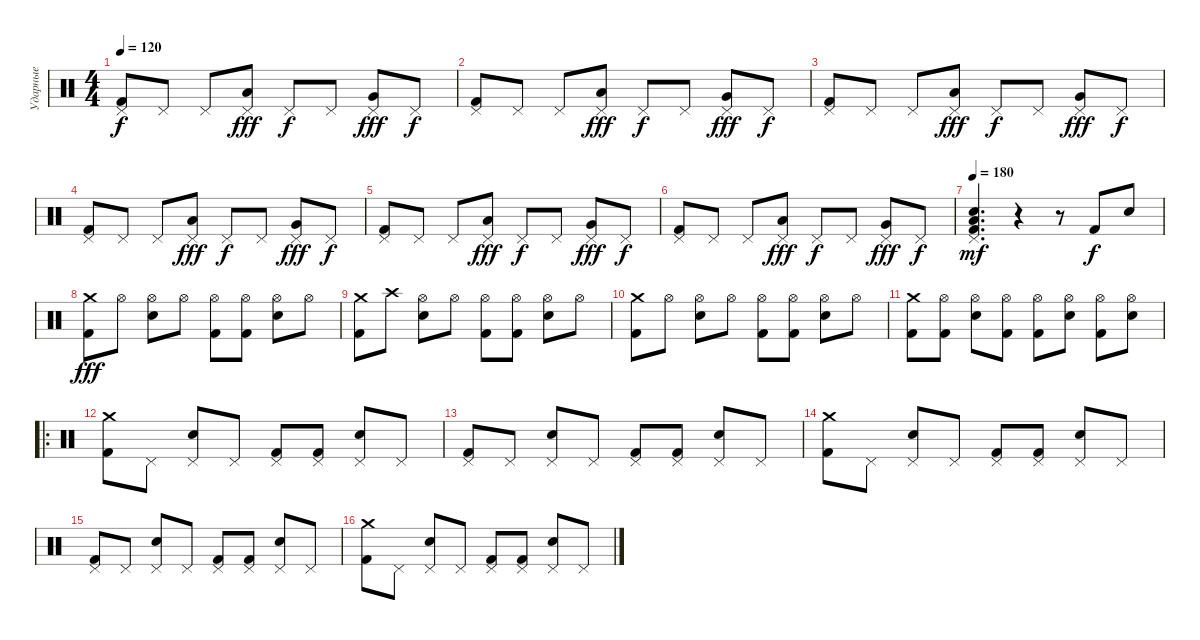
\track ("Ударные" "Ударные") {instrument percussion}
\staff {score}
\articulation defaults
\ts (4 4)
\tempo 120
\clef neutral
\ks c
("Pedal Hi-Hat (hit)" "Kick (hit) 2").8{dy f} "Pedal Hi-Hat (hit)".8 "Pedal Hi-Hat (hit)".8 ("Pedal Hi-Hat (hit)" "Low Floor Tom (hit)").8{dy fff} "Pedal Hi-Hat (hit)".8{dy f} "Pedal Hi-Hat (hit)".8 ("Pedal Hi-Hat (hit)" "Very Low Tom (hit)").8{dy fff} "Pedal Hi-Hat (hit)".8{dy f} |
("Pedal Hi-Hat (hit)" "Kick (hit) 2").8 "Pedal Hi-Hat (hit)".8 "Pedal Hi-Hat (hit)".8 ("Pedal Hi-Hat (hit)" "Low Floor Tom (hit)").8{dy fff} "Pedal Hi-Hat (hit)".8{dy f} "Pedal Hi-Hat (hit)".8 ("Pedal Hi-Hat (hit)" "Very Low Tom (hit)").8{dy fff} "Pedal Hi-Hat (hit)".8{dy f} |
("Pedal Hi-Hat (hit)" "Kick (hit) 2").8 "Pedal Hi-Hat (hit)".8 "Pedal Hi-Hat (hit)".8 ("Pedal Hi-Hat (hit)" "Low Floor Tom (hit)").8{dy fff} "Pedal Hi-Hat (hit)".8{dy f} "Pedal Hi-Hat (hit)".8 ("Pedal Hi-Hat (hit)" "Very Low Tom (hit)").8{dy fff} "Pedal Hi-Hat (hit)".8{dy f} |
("Pedal Hi-Hat (hit)" "Kick (hit) 2").8 "Pedal Hi-Hat (hit)".8 "Pedal Hi-Hat (hit)".8 ("Pedal Hi-Hat (hit)" "Low Floor Tom (hit)").8{dy fff} "Pedal Hi-Hat (hit)".8{dy f} "Pedal Hi-Hat (hit)".8 ("Pedal Hi-Hat (hit)" "Very Low Tom (hit)").8{dy fff} "Pedal Hi-Hat (hit)".8{dy f} |
("Pedal Hi-Hat (hit)" "Kick (hit) 2").8 "Pedal Hi-Hat (hit)".8 "Pedal Hi-Hat (hit)".8 ("Pedal Hi-Hat (hit)" "Low Floor Tom (hit)").8{dy fff} "Pedal Hi-Hat (hit)".8{dy f} "Pedal Hi-Hat (hit)".8 ("Pedal Hi-Hat (hit)" "Very Low Tom (hit)").8{dy fff} "Pedal Hi-Hat (hit)".8{dy f} |
("Pedal Hi-Hat (hit)" "Kick (hit) 2").8 "Pedal Hi-Hat (hit)".8 "Pedal Hi-Hat (hit)".8 ("Pedal Hi-Hat (hit)" "Low Floor Tom (hit)").8{dy fff} "Pedal Hi-Hat (hit)".8{dy f} "Pedal Hi-Hat (hit)".8 ("Pedal Hi-Hat (hit)" "Very Low Tom (hit)").8{dy fff} "Pedal Hi-Hat (hit)".8{dy f} |
\tempo 180
("Metronome (bell)" "Pedal Hi-Hat (hit)" "Low Floor Tom (hit)" "Kick (hit) 2").4{d dy mf} r.4 r.8 "Kick (hit) 2".8{dy f} "Electric Snare (hit)".8 |
("Crash medium (hit)" "Kick (hit) 2").8{dy fff} "Hi-Hat (open)".8 ("Hi-Hat (open)" "Electric Snare (hit)").8 "Hi-Hat (open)".8 ("Hi-Hat (open)" "Kick (hit) 2").8 ("Hi-Hat (open)" "Kick (hit) 2").8 ("Hi-Hat (open)" "Electric Snare (hit)").8 "Hi-Hat (open)".8 |
("Crash medium (hit)" "Kick (hit) 2").8 "Crash high (hit)".8 ("Hi-Hat (open)" "Electric Snare (hit)").8 "Hi-Hat (open)".8 ("Hi-Hat (open)" "Kick (hit) 2").8 ("Hi-Hat (open)" "Kick (hit) 2").8 ("Hi-Hat (open)" "Electric Snare (hit)").8 "Hi-Hat (open)".8 |
("Crash medium (hit)" "Kick (hit) 2").8 "Hi-Hat (open)".8 ("Hi-Hat (open)" "Electric Snare (hit)").8 "Hi-Hat (open)".8 ("Hi-Hat (open)" "Kick (hit) 2").8 ("Hi-Hat (open)" "Kick (hit) 2").8 ("Hi-Hat (open)" "Electric Snare (hit)").8 "Hi-Hat (open)".8 |
("Crash medium (hit)" "Kick (hit) 2").8 ("Hi-Hat (open)" "Kick (hit) 2").8 ("Hi-Hat (open)" "Electric Snare (hit)").8 ("Hi-Hat (open)" "Kick (hit) 2").8 ("Hi-Hat (open)" "Kick (hit) 2").8 ("Hi-Hat (open)" "Electric Snare (hit)").8 ("Hi-Hat (open)" "Kick (hit) 2").8 ("Hi-Hat (open)" "Electric Snare (hit)").8 |
\ro
("Crash medium (hit)" "Kick (hit) 2").8 "Pedal Hi-Hat (hit)".8 ("Pedal Hi-Hat (hit)" "Electric Snare (hit)").8 "Pedal Hi-Hat (hit)".8 ("Pedal Hi-Hat (hit)" "Kick (hit) 2").8 ("Pedal Hi-Hat (hit)" "Kick (hit) 2").8 ("Pedal Hi-Hat (hit)" "Electric Snare (hit)").8 "Pedal Hi-Hat (hit)".8 |
("Pedal Hi-Hat (hit)" "Kick (hit) 2").8 "Pedal Hi-Hat (hit)".8 ("Pedal Hi-Hat (hit)" "Electric Snare (hit)").8 "Pedal Hi-Hat (hit)".8 ("Pedal Hi-Hat (hit)" "Kick (hit) 2").8 ("Pedal Hi-Hat (hit)" "Kick (hit) 2").8 ("Pedal Hi-Hat (hit)" "Electric Snare (hit)").8 "Pedal Hi-Hat (hit)".8 |
("Crash medium (hit)" "Kick (hit) 2").8 "Pedal Hi-Hat (hit)".8 ("Pedal Hi-Hat (hit)" "Electric Snare (hit)").8 "Pedal Hi-Hat (hit)".8 ("Pedal Hi-Hat (hit)" "Kick (hit) 2").8 ("Pedal Hi-Hat (hit)" "Kick (hit) 2").8 ("Pedal Hi-Hat (hit)" "Electric Snare (hit)").8 "Pedal Hi-Hat (hit)".8 |
("Pedal Hi-Hat (hit)" "Kick (hit) 2").8 "Pedal Hi-Hat (hit)".8 ("Pedal Hi-Hat (hit)" "Electric Snare (hit)").8 "Pedal Hi-Hat (hit)".8 ("Pedal Hi-Hat (hit)" "Kick (hit) 2").8 ("Pedal Hi-Hat (hit)" "Kick (hit) 2").8 ("Pedal Hi-Hat (hit)" "Electric Snare (hit)").8 "Pedal Hi-Hat (hit)".8 |
("Crash medium (hit)" "Kick (hit) 2").8 "Pedal Hi-Hat (hit)".8 ("Pedal Hi-Hat (hit)" "Electric Snare (hit)").8 "Pedal Hi-Hat (hit)".8 ("Pedal Hi-Hat (hit)" "Kick (hit) 2").8 ("Pedal Hi-Hat (hit)" "Kick (hit) 2").8 ("Pedal Hi-Hat (hit)" "Electric Snare (hit)").8 "Pedal Hi-Hat (hit)".8
